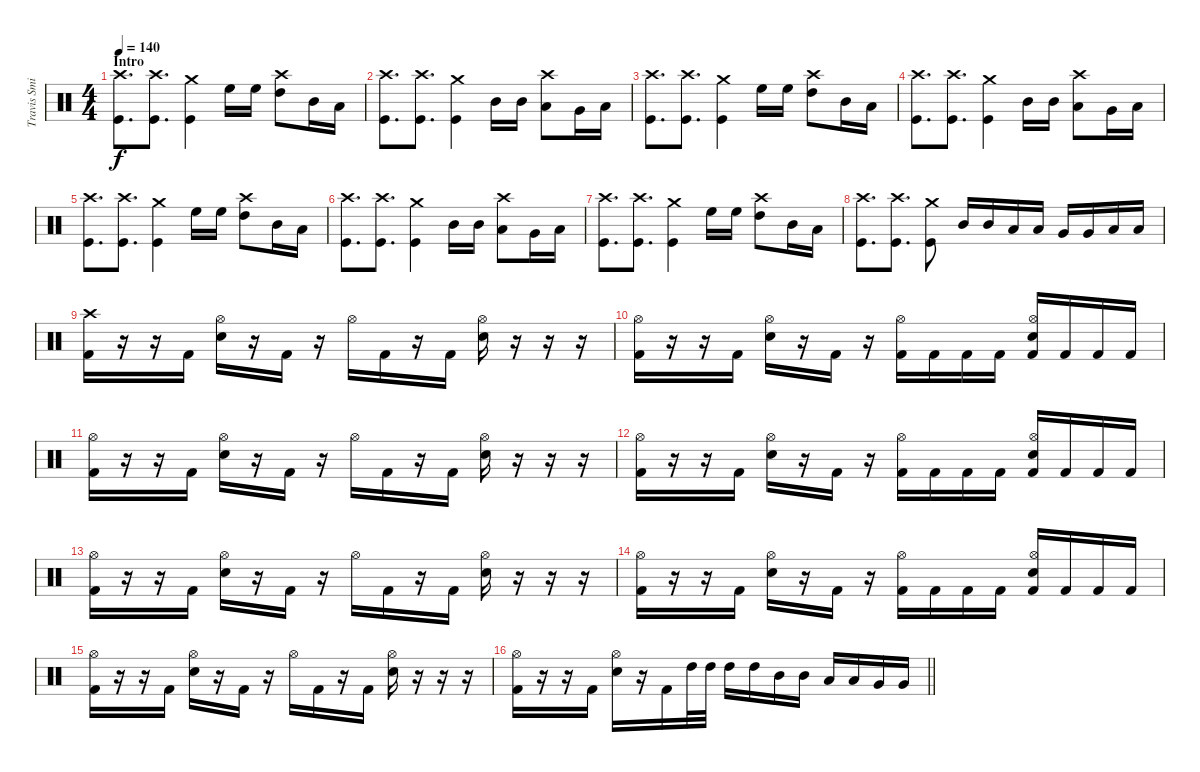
\track ("Travis Smith" "Travis Smi") {instrument percussion}
\staff {score}
\articulation defaults
\ts (4 4)
\section ("" "Intro")
\tempo 140
\clef neutral
\ks c
("Crash high (hit)" "Kick (hit)").8{d dy f} ("Crash high (hit)" "Kick (hit)").8{d} ("Crash medium (hit)" "Kick (hit)").4 "High Floor Tom (hit)".16 "High Floor Tom (hit)".16 ("Crash high (hit)" "High Tom (hit)").8 "Mid Tom (hit)".16 "Low Tom (hit)".16 |
("Crash high (hit)" "Kick (hit)").8{d} ("Crash high (hit)" "Kick (hit)").8{d} ("Crash medium (hit)" "Kick (hit)").4 "Mid Tom (hit)".16 "Mid Tom (hit)".16 ("Crash high (hit)" "Low Tom (hit)").8 "Very Low Tom (hit)".16 "Low Floor Tom (hit)".16 |
("Crash high (hit)" "Kick (hit)").8{d} ("Crash high (hit)" "Kick (hit)").8{d} ("Crash medium (hit)" "Kick (hit)").4 "High Floor Tom (hit)".16 "High Floor Tom (hit)".16 ("Crash high (hit)" "High Tom (hit)").8 "Mid Tom (hit)".16 "Low Tom (hit)".16 |
("Crash high (hit)" "Kick (hit)").8{d} ("Crash high (hit)" "Kick (hit)").8{d} ("Crash medium (hit)" "Kick (hit)").4 "Mid Tom (hit)".16 "Mid Tom (hit)".16 ("Crash high (hit)" "Low Tom (hit)").8 "Very Low Tom (hit)".16 "Low Floor Tom (hit)".16 |
("Crash high (hit)" "Kick (hit)").8{d} ("Crash high (hit)" "Kick (hit)").8{d} ("Crash medium (hit)" "Kick (hit)").4 "High Floor Tom (hit)".16 "High Floor Tom (hit)".16 ("Crash high (hit)" "High Tom (hit)").8 "Mid Tom (hit)".16 "Low Tom (hit)".16 |
("Crash high (hit)" "Kick (hit)").8{d} ("Crash high (hit)" "Kick (hit)").8{d} ("Crash medium (hit)" "Kick (hit)").4 "Mid Tom (hit)".16 "Mid Tom (hit)".16 ("Crash high (hit)" "Low Tom (hit)").8 "Very Low Tom (hit)".16 "Low Floor Tom (hit)".16 |
("Crash high (hit)" "Kick (hit)").8{d} ("Crash high (hit)" "Kick (hit)").8{d} ("Crash medium (hit)" "Kick (hit)").4 "High Floor Tom (hit)".16 "High Floor Tom (hit)".16 ("Crash high (hit)" "High Tom (hit)").8 "Mid Tom (hit)".16 "Low Tom (hit)".16 |
("Crash high (hit)" "Kick (hit)").8{d} ("Crash high (hit)" "Kick (hit)").8{d} ("Crash medium (hit)" "Kick (hit)").8 "Mid Tom (hit)".16 "Mid Tom (hit)".16 "Low Tom (hit)".16 "Low Tom (hit)".16 "Very Low Tom (hit)".16 "Very Low Tom (hit)".16 "Low Floor Tom (hit)".16 "Low Floor Tom (hit)".16 |
("Crash high (hit)" "Kick (hit) 2").16 r.16 r.16 "Kick (hit) 2".16 ("Hi-Hat (open)" "Snare (hit) 2").16 r.16 "Kick (hit) 2".16 r.16 "Hi-Hat (open)".16 "Kick (hit) 2".16 r.16 "Kick (hit) 2".16 ("Hi-Hat (open)" "Snare (hit) 2").16 r.16 r.16 r.16 |
("Hi-Hat (open)" "Kick (hit) 2").16 r.16 r.16 "Kick (hit) 2".16 ("Hi-Hat (open)" "Snare (hit) 2").16 r.16 "Kick (hit) 2".16 r.16 ("Hi-Hat (open)" "Kick (hit) 2").16 "Kick (hit) 2".16 "Kick (hit) 2".16 "Kick (hit) 2".16 ("Hi-Hat (open)" "Snare (hit) 2" "Kick (hit) 2").16 "Kick (hit) 2".16 "Kick (hit) 2".16 "Kick (hit) 2".16 |
("Hi-Hat (open)" "Kick (hit) 2").16 r.16 r.16 "Kick (hit) 2".16 ("Hi-Hat (open)" "Snare (hit) 2").16 r.16 "Kick (hit) 2".16 r.16 "Hi-Hat (open)".16 "Kick (hit) 2".16 r.16 "Kick (hit) 2".16 ("Hi-Hat (open)" "Snare (hit) 2").16 r.16 r.16 r.16 |
("Hi-Hat (open)" "Kick (hit) 2").16 r.16 r.16 "Kick (hit) 2".16 ("Hi-Hat (open)" "Snare (hit) 2").16 r.16 "Kick (hit) 2".16 r.16 ("Hi-Hat (open)" "Kick (hit) 2").16 "Kick (hit) 2".16 "Kick (hit) 2".16 "Kick (hit) 2".16 ("Hi-Hat (open)" "Snare (hit) 2" "Kick (hit) 2").16 "Kick (hit) 2".16 "Kick (hit) 2".16 "Kick (hit) 2".16 |
("Hi-Hat (open)" "Kick (hit) 2").16 r.16 r.16 "Kick (hit) 2".16 ("Hi-Hat (open)" "Snare (hit) 2").16 r.16 "Kick (hit) 2".16 r.16 "Hi-Hat (open)".16 "Kick (hit) 2".16 r.16 "Kick (hit) 2".16 ("Hi-Hat (open)" "Snare (hit) 2").16 r.16 r.16 r.16 |
("Hi-Hat (open)" "Kick (hit) 2").16 r.16 r.16 "Kick (hit) 2".16 ("Hi-Hat (open)" "Snare (hit) 2").16 r.16 "Kick (hit) 2".16 r.16 ("Hi-Hat (open)" "Kick (hit) 2").16 "Kick (hit) 2".16 "Kick (hit) 2".16 "Kick (hit) 2".16 ("Hi-Hat (open)" "Snare (hit) 2" "Kick (hit) 2").16 "Kick (hit) 2".16 "Kick (hit) 2".16 "Kick (hit) 2".16 |
("Hi-Hat (open)" "Kick (hit) 2").16 r.16 r.16 "Kick (hit) 2".16 ("Hi-Hat (open)" "Snare (hit) 2").16 r.16 "Kick (hit) 2".16 r.16 "Hi-Hat (open)".16 "Kick (hit) 2".16 r.16 "Kick (hit) 2".16 ("Hi-Hat (open)" "Snare (hit) 2").16 r.16 r.16 r.16 |
\barLineRight lightlight
("Hi-Hat (open)" "Kick (hit) 2").16 r.16 r.16 "Kick (hit) 2".16 ("Hi-Hat (open)" "Snare (hit) 2").16 r.16 "Kick (hit) 2".16 "High Tom (hit)".32 "High Tom (hit)".32 "High Tom (hit)".16 "High Tom (hit)".16 "Mid Tom (hit)".16 "Mid Tom (hit)".16 "Low Tom (hit)".16 "Low Tom (hit)".16 "Very Low Tom (hit)".16 "Very Low Tom (hit)".16
